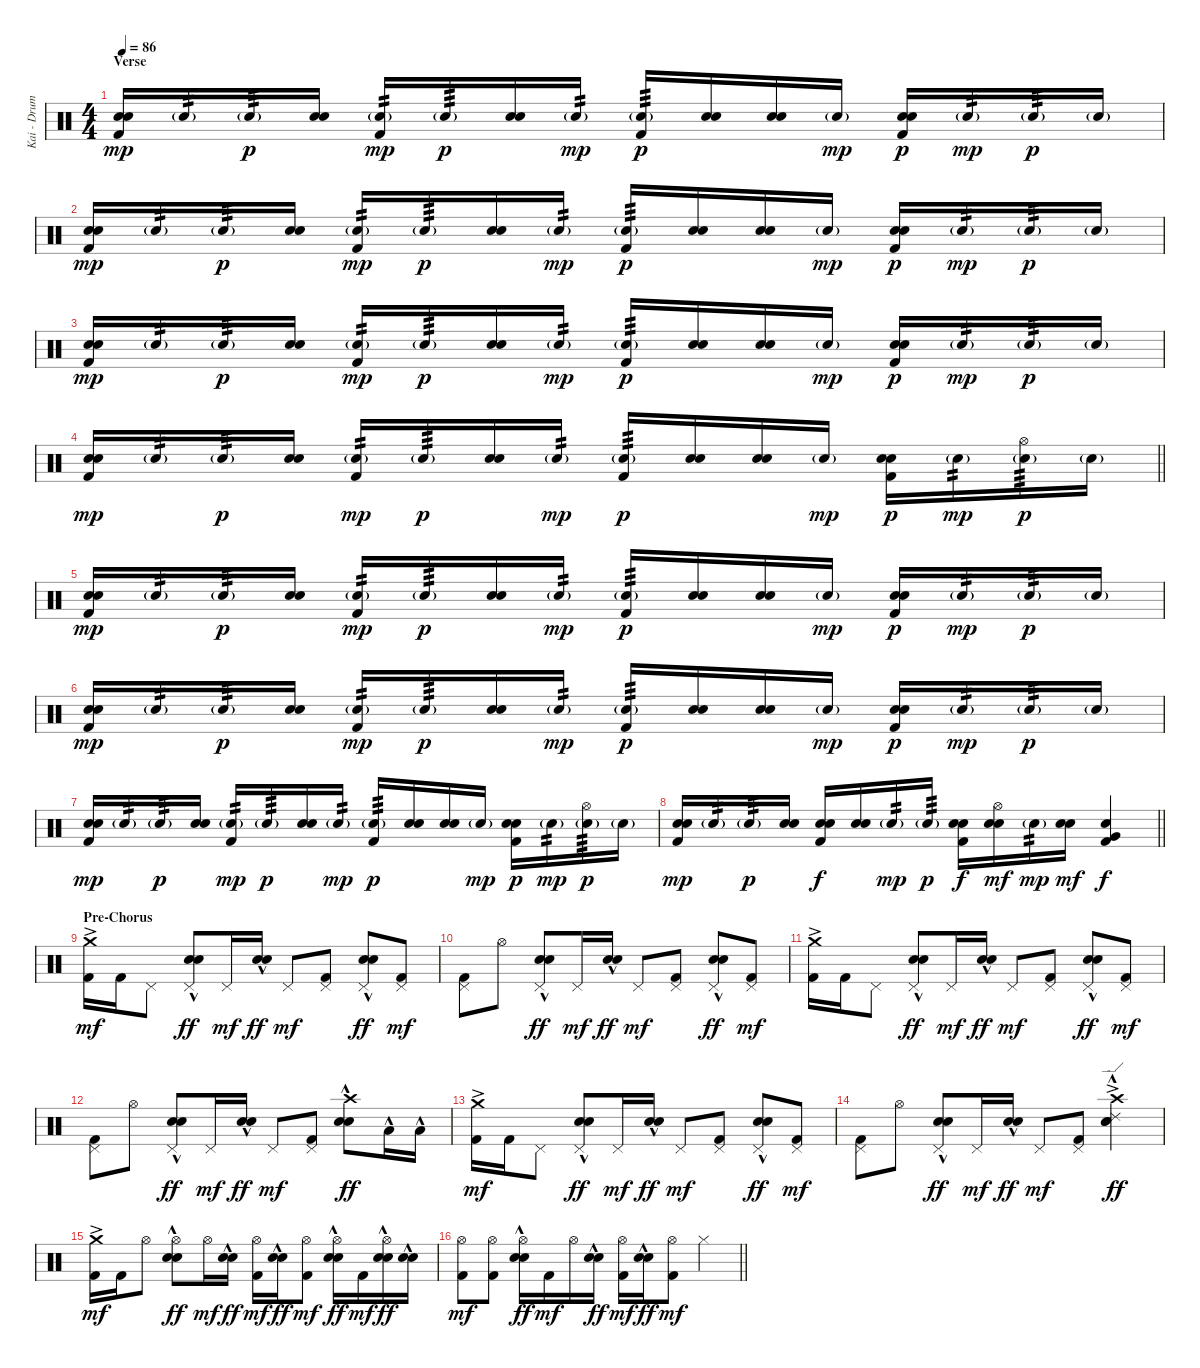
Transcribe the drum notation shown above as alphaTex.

\track ("Kai - Drums" "Kai - Drum") {instrument percussion}
\staff {score}
\articulation defaults
\ts (4 4)
\section ("" "Verse")
\tempo 86
\clef neutral
\ks c
("Electric Snare (hit)" "Snare (hit) 2" "Kick (hit) 2").16{dy mp} "Snare (hit) 2"{g}.16{tp 2} "Snare (hit) 2"{g}.16{tp 3 dy p} ("Electric Snare (hit)" "Snare (hit) 2").16 ("Snare (hit) 2"{g} "Kick (hit) 2").16{tp 2 dy mp} "Snare (hit) 2"{g}.16{tp 3 dy p} ("Electric Snare (hit)" "Snare (hit) 2").16 "Snare (hit) 2"{g}.16{tp 2 dy mp} ("Snare (hit) 2"{g} "Kick (hit) 2").16{tp 3 dy p} ("Electric Snare (hit)" "Snare (hit) 2").16 ("Electric Snare (hit)" "Snare (hit) 2").16 "Snare (hit) 2"{g}.16{dy mp} ("Electric Snare (hit)" "Snare (hit) 2" "Kick (hit) 2").16{dy p} "Snare (hit) 2"{g}.16{tp 2 dy mp} "Snare (hit) 2"{g}.16{tp 3 dy p} "Snare (hit) 2"{g}.16 |
("Electric Snare (hit)" "Snare (hit) 2" "Kick (hit) 2").16{dy mp} "Snare (hit) 2"{g}.16{tp 2} "Snare (hit) 2"{g}.16{tp 3 dy p} ("Electric Snare (hit)" "Snare (hit) 2").16 ("Snare (hit) 2"{g} "Kick (hit) 2").16{tp 2 dy mp} "Snare (hit) 2"{g}.16{tp 3 dy p} ("Electric Snare (hit)" "Snare (hit) 2").16 "Snare (hit) 2"{g}.16{tp 2 dy mp} ("Snare (hit) 2"{g} "Kick (hit) 2").16{tp 3 dy p} ("Electric Snare (hit)" "Snare (hit) 2").16 ("Electric Snare (hit)" "Snare (hit) 2").16 "Snare (hit) 2"{g}.16{dy mp} ("Electric Snare (hit)" "Snare (hit) 2" "Kick (hit) 2").16{dy p} "Snare (hit) 2"{g}.16{tp 2 dy mp} "Snare (hit) 2"{g}.16{tp 3 dy p} "Snare (hit) 2"{g}.16 |
("Electric Snare (hit)" "Snare (hit) 2" "Kick (hit) 2").16{dy mp} "Snare (hit) 2"{g}.16{tp 2} "Snare (hit) 2"{g}.16{tp 3 dy p} ("Electric Snare (hit)" "Snare (hit) 2").16 ("Snare (hit) 2"{g} "Kick (hit) 2").16{tp 2 dy mp} "Snare (hit) 2"{g}.16{tp 3 dy p} ("Electric Snare (hit)" "Snare (hit) 2").16 "Snare (hit) 2"{g}.16{tp 2 dy mp} ("Snare (hit) 2"{g} "Kick (hit) 2").16{tp 3 dy p} ("Electric Snare (hit)" "Snare (hit) 2").16 ("Electric Snare (hit)" "Snare (hit) 2").16 "Snare (hit) 2"{g}.16{dy mp} ("Electric Snare (hit)" "Snare (hit) 2" "Kick (hit) 2").16{dy p} "Snare (hit) 2"{g}.16{tp 2 dy mp} "Snare (hit) 2"{g}.16{tp 3 dy p} "Snare (hit) 2"{g}.16 |
\barLineRight lightlight
("Electric Snare (hit)" "Snare (hit) 2" "Kick (hit) 2").16{dy mp} "Snare (hit) 2"{g}.16{tp 2} "Snare (hit) 2"{g}.16{tp 3 dy p} ("Electric Snare (hit)" "Snare (hit) 2").16 ("Snare (hit) 2"{g} "Kick (hit) 2").16{tp 2 dy mp} "Snare (hit) 2"{g}.16{tp 3 dy p} ("Electric Snare (hit)" "Snare (hit) 2").16 "Snare (hit) 2"{g}.16{tp 2 dy mp} ("Snare (hit) 2"{g} "Kick (hit) 2").16{tp 3 dy p} ("Electric Snare (hit)" "Snare (hit) 2").16 ("Electric Snare (hit)" "Snare (hit) 2").16 "Snare (hit) 2"{g}.16{dy mp} ("Electric Snare (hit)" "Snare (hit) 2" "Kick (hit) 2").16{dy p} "Snare (hit) 2"{g}.16{tp 2 dy mp} ("Hi-Hat (open)" "Snare (hit) 2"{g}).16{tp 3 dy p} "Snare (hit) 2"{g}.16 |
("Electric Snare (hit)" "Snare (hit) 2" "Kick (hit) 2").16{dy mp} "Snare (hit) 2"{g}.16{tp 2} "Snare (hit) 2"{g}.16{tp 3 dy p} ("Electric Snare (hit)" "Snare (hit) 2").16 ("Snare (hit) 2"{g} "Kick (hit) 2").16{tp 2 dy mp} "Snare (hit) 2"{g}.16{tp 3 dy p} ("Electric Snare (hit)" "Snare (hit) 2").16 "Snare (hit) 2"{g}.16{tp 2 dy mp} ("Snare (hit) 2"{g} "Kick (hit) 2").16{tp 3 dy p} ("Electric Snare (hit)" "Snare (hit) 2").16 ("Electric Snare (hit)" "Snare (hit) 2").16 "Snare (hit) 2"{g}.16{dy mp} ("Electric Snare (hit)" "Snare (hit) 2" "Kick (hit) 2").16{dy p} "Snare (hit) 2"{g}.16{tp 2 dy mp} "Snare (hit) 2"{g}.16{tp 3 dy p} "Snare (hit) 2"{g}.16 |
("Electric Snare (hit)" "Snare (hit) 2" "Kick (hit) 2").16{dy mp} "Snare (hit) 2"{g}.16{tp 2} "Snare (hit) 2"{g}.16{tp 3 dy p} ("Electric Snare (hit)" "Snare (hit) 2").16 ("Snare (hit) 2"{g} "Kick (hit) 2").16{tp 2 dy mp} "Snare (hit) 2"{g}.16{tp 3 dy p} ("Electric Snare (hit)" "Snare (hit) 2").16 "Snare (hit) 2"{g}.16{tp 2 dy mp} ("Snare (hit) 2"{g} "Kick (hit) 2").16{tp 3 dy p} ("Electric Snare (hit)" "Snare (hit) 2").16 ("Electric Snare (hit)" "Snare (hit) 2").16 "Snare (hit) 2"{g}.16{dy mp} ("Electric Snare (hit)" "Snare (hit) 2" "Kick (hit) 2").16{dy p} "Snare (hit) 2"{g}.16{tp 2 dy mp} "Snare (hit) 2"{g}.16{tp 3 dy p} "Snare (hit) 2"{g}.16 |
("Electric Snare (hit)" "Snare (hit) 2" "Kick (hit) 2").16{dy mp} "Snare (hit) 2"{g}.16{tp 2} "Snare (hit) 2"{g}.16{tp 3 dy p} ("Electric Snare (hit)" "Snare (hit) 2").16 ("Snare (hit) 2"{g} "Kick (hit) 2").16{tp 2 dy mp} "Snare (hit) 2"{g}.16{tp 3 dy p} ("Electric Snare (hit)" "Snare (hit) 2").16 "Snare (hit) 2"{g}.16{tp 2 dy mp} ("Snare (hit) 2"{g} "Kick (hit) 2").16{tp 3 dy p} ("Electric Snare (hit)" "Snare (hit) 2").16 ("Electric Snare (hit)" "Snare (hit) 2").16 "Snare (hit) 2"{g}.16{dy mp} ("Electric Snare (hit)" "Snare (hit) 2" "Kick (hit) 2").16{dy p} "Snare (hit) 2"{g}.16{tp 2 dy mp} ("Hi-Hat (open)" "Snare (hit) 2"{g}).16{tp 3 dy p} "Snare (hit) 2"{g}.16 |
\barLineRight lightlight
("Electric Snare (hit)" "Snare (hit) 2" "Kick (hit) 2").16{dy mp} "Snare (hit) 2"{g}.16{tp 2} "Snare (hit) 2"{g}.16{tp 3 dy p} ("Electric Snare (hit)" "Snare (hit) 2").16 ("Electric Snare (hit)" "Snare (hit) 2" "Kick (hit) 2").16{dy f} ("Electric Snare (hit)" "Snare (hit) 2").16 "Snare (hit) 2"{g}.16{tp 2 dy mp} "Snare (hit) 2"{g}.16{tp 3 dy p} ("Electric Snare (hit)" "Snare (hit) 2" "Kick (hit) 2").16{dy f} ("Hi-Hat (open)" "Electric Snare (hit)" "Snare (hit) 2").16{dy mf} "Snare (hit) 2"{g}.16{tp 2 dy mp} ("Electric Snare (hit)" "Snare (hit) 2").16{dy mf} ("Electric Snare (hit)" "Very Low Tom (hit)" "Kick (hit) 2").4{dy f} |
\section ("" "Pre-Chorus")
("Crash medium (hit)"{ac} "Kick (hit) 2").16{dy mf} "Kick (hit) 2".16 "Pedal Hi-Hat (hit)".8 ("Pedal Hi-Hat (hit)" "Electric Snare (hit)"{hac} "Snare (hit) 2"{hac}).8{dy ff} "Pedal Hi-Hat (hit)".16{dy mf} ("Electric Snare (hit)"{hac} "Snare (hit) 2"{hac}).16{dy ff} "Pedal Hi-Hat (hit)".8{dy mf} ("Pedal Hi-Hat (hit)" "Kick (hit) 2").8 ("Pedal Hi-Hat (hit)" "Electric Snare (hit)"{hac} "Snare (hit) 2"{hac}).8{dy ff} ("Pedal Hi-Hat (hit)" "Kick (hit) 2").8{dy mf} |
("Pedal Hi-Hat (hit)" "Kick (hit) 2").8 "Hi-Hat (open)".8 ("Pedal Hi-Hat (hit)" "Electric Snare (hit)"{hac} "Snare (hit) 2"{hac}).8{dy ff} "Pedal Hi-Hat (hit)".16{dy mf} ("Electric Snare (hit)"{hac} "Snare (hit) 2"{hac}).16{dy ff} "Pedal Hi-Hat (hit)".8{dy mf} ("Pedal Hi-Hat (hit)" "Kick (hit) 2").8 ("Pedal Hi-Hat (hit)" "Electric Snare (hit)"{hac} "Snare (hit) 2"{hac}).8{dy ff} ("Pedal Hi-Hat (hit)" "Kick (hit) 2").8{dy mf} |
("Crash medium (hit)"{ac} "Kick (hit) 2").16 "Kick (hit) 2".16 "Pedal Hi-Hat (hit)".8 ("Pedal Hi-Hat (hit)" "Electric Snare (hit)"{hac} "Snare (hit) 2"{hac}).8{dy ff} "Pedal Hi-Hat (hit)".16{dy mf} ("Electric Snare (hit)"{hac} "Snare (hit) 2"{hac}).16{dy ff} "Pedal Hi-Hat (hit)".8{dy mf} ("Pedal Hi-Hat (hit)" "Kick (hit) 2").8 ("Pedal Hi-Hat (hit)" "Electric Snare (hit)"{hac} "Snare (hit) 2"{hac}).8{dy ff} ("Pedal Hi-Hat (hit)" "Kick (hit) 2").8{dy mf} |
("Pedal Hi-Hat (hit)" "Kick (hit) 2").8 "Hi-Hat (open)".8 ("Pedal Hi-Hat (hit)" "Electric Snare (hit)"{hac} "Snare (hit) 2"{hac}).8{dy ff} "Pedal Hi-Hat (hit)".16{dy mf} ("Electric Snare (hit)"{hac} "Snare (hit) 2"{hac}).16{dy ff} "Pedal Hi-Hat (hit)".8{dy mf} ("Pedal Hi-Hat (hit)" "Kick (hit) 2").8 ("Crash high (hit)" "Electric Snare (hit)"{hac} "Snare (hit) 2"{hac}).8{dy ff} "Low Tom (hit)"{hac}.16 "Low Tom (hit)"{hac}.16 |
("Crash medium (hit)"{ac} "Kick (hit) 2").16{dy mf} "Kick (hit) 2".16 "Pedal Hi-Hat (hit)".8 ("Pedal Hi-Hat (hit)" "Electric Snare (hit)"{hac} "Snare (hit) 2"{hac}).8{dy ff} "Pedal Hi-Hat (hit)".16{dy mf} ("Electric Snare (hit)"{hac} "Snare (hit) 2"{hac}).16{dy ff} "Pedal Hi-Hat (hit)".8{dy mf} ("Pedal Hi-Hat (hit)" "Kick (hit) 2").8 ("Pedal Hi-Hat (hit)" "Electric Snare (hit)"{hac} "Snare (hit) 2"{hac}).8{dy ff} ("Pedal Hi-Hat (hit)" "Kick (hit) 2").8{dy mf} |
("Pedal Hi-Hat (hit)" "Kick (hit) 2").8 "Hi-Hat (open)".8 ("Pedal Hi-Hat (hit)" "Electric Snare (hit)"{hac} "Snare (hit) 2"{hac}).8{dy ff} "Pedal Hi-Hat (hit)".16{dy mf} ("Electric Snare (hit)"{hac} "Snare (hit) 2"{hac}).16{dy ff} "Pedal Hi-Hat (hit)".8{dy mf} ("Pedal Hi-Hat (hit)" "Kick (hit) 2").8 ("Crash high (hit)"{ac} "Ride (edge) 2"{hac} "Electric Snare (hit)"{hac} "Snare (hit) 2"{hac}).4{dy ff} |
("Crash medium (hit)"{ac} "Kick (hit) 2").16{dy mf} "Kick (hit) 2".16 "Hi-Hat (open)".8 ("Hi-Hat (open)" "Electric Snare (hit)"{hac} "Snare (hit) 2"{hac}).8{dy ff} "Hi-Hat (open)".16{dy mf} ("Electric Snare (hit)"{hac} "Snare (hit) 2"{hac}).16{dy ff} ("Hi-Hat (open)" "Kick (hit) 2").16{dy mf} ("Electric Snare (hit)"{hac} "Snare (hit) 2"{hac}).16{dy ff} ("Hi-Hat (open)" "Kick (hit) 2").8{dy mf} ("Hi-Hat (open)" "Electric Snare (hit)"{hac} "Snare (hit) 2"{hac}).16{dy ff} "Kick (hit) 2".16{dy mf} ("Hi-Hat (open)" "Electric Snare (hit)"{hac} "Snare (hit) 2"{hac}).16{dy ff} ("Electric Snare (hit)"{hac} "Snare (hit) 2"{hac}).16 |
\barLineRight lightlight
("Hi-Hat (open)" "Kick (hit) 2").8{dy mf} ("Hi-Hat (open)" "Kick (hit) 2").8 ("Hi-Hat (open)" "Electric Snare (hit)"{hac} "Snare (hit) 2"{hac}).16{dy ff} "Kick (hit) 2".16{dy mf} "Hi-Hat (open)".16 ("Electric Snare (hit)"{hac} "Snare (hit) 2"{hac}).16{dy ff} ("Hi-Hat (open)" "Kick (hit) 2").16{dy mf} ("Electric Snare (hit)"{hac} "Snare (hit) 2"{hac}).16{dy ff} ("Hi-Hat (open)" "Kick (hit) 2").8{dy mf} "Hi-Hat (closed)".4
